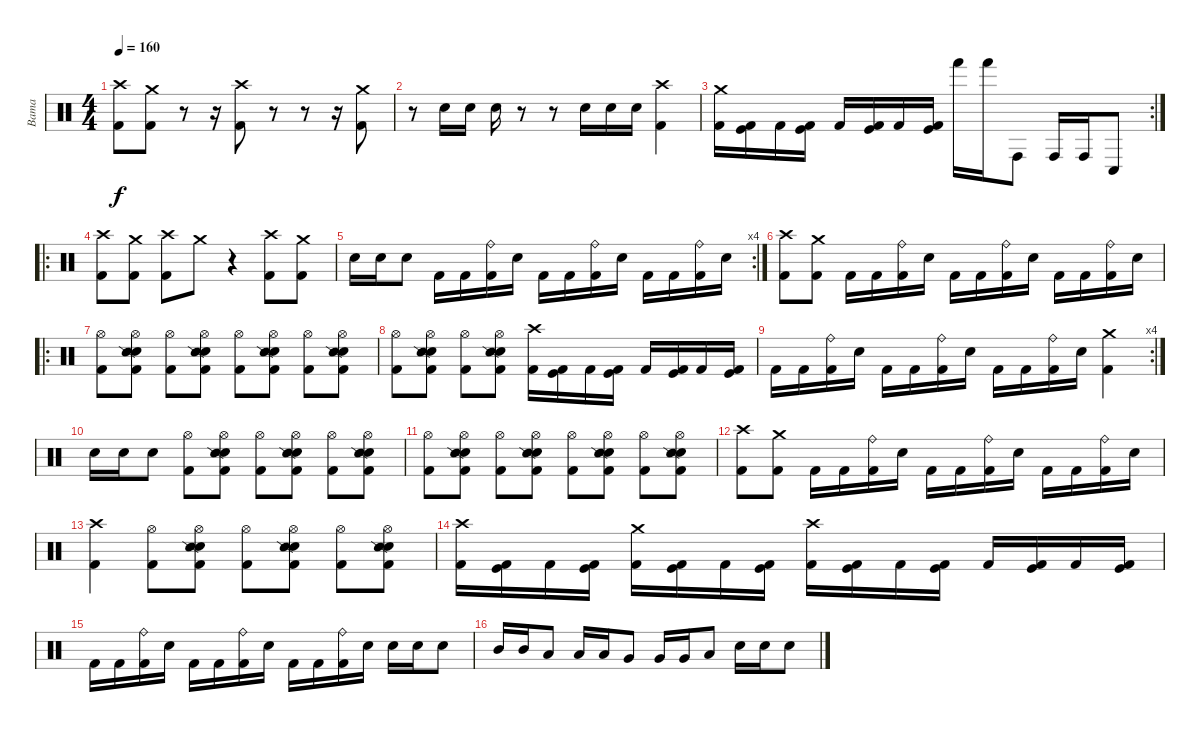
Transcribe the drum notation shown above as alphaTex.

\track ("Bama" "Bama") {instrument percussion}
\staff {score}
\articulation defaults
\ts (4 4)
\tempo 160
\clef neutral
\ks c
("Crash high (hit)" "Kick (hit) 2").8{dy f} ("Crash medium (hit)" "Kick (hit) 2").8 r.8 r.16 ("Crash high (hit)" "Kick (hit) 2").8 r.8 r.8 r.16 ("Crash medium (hit)" "Kick (hit) 2").8 |
r.8 "Electric Snare (hit)".16 "Electric Snare (hit)".16 "Electric Snare (hit)".16 r.8 r.8 "Electric Snare (hit)".16 "Electric Snare (hit)".16 "Electric Snare (hit)".16 ("Crash high (hit)" "Kick (hit) 2").4 |
\rc 2
("Crash medium (hit)" "Kick (hit) 2").16 ("Kick (hit)" "Kick (hit) 2").16 "Kick (hit) 2".16 ("Kick (hit)" "Kick (hit) 2").16 "Kick (hit) 2".16 ("Kick (hit)" "Kick (hit) 2").16 "Kick (hit) 2".16 ("Kick (hit)" "Kick (hit) 2").16 "Hand (hit)".16 "Hand (hit)".16 "Conga high (hit)".8 "Conga high (hit)".16 "Conga high (hit)".16 "Conga low (hit)".8 |
\ro
("Crash high (hit)" "Kick (hit) 2").8 ("Crash medium (hit)" "Kick (hit) 2").8 ("Crash high (hit)" "Kick (hit) 2").8 "Crash medium (hit)".8 r.4 ("Crash high (hit)" "Kick (hit) 2").8 ("Crash medium (hit)" "Kick (hit) 2").8 |
\rc 4 "Electric Snare (hit)".16 "Electric Snare (hit)".16 "Electric Snare (hit)".8 "Kick (hit) 2".16 "Kick (hit) 2".16
("Ride (bell)" "Kick (hit) 2").16 "Electric Snare (hit)".16 "Kick (hit) 2".16 "Kick (hit) 2".16 ("Ride (bell)" "Kick (hit) 2").16 "Electric Snare (hit)".16 "Kick (hit) 2".16 "Kick (hit) 2".16 ("Ride (bell)" "Kick (hit) 2").16 "Electric Snare (hit)".16 |
("Crash high (hit)" "Kick (hit) 2").8 ("Crash medium (hit)" "Kick (hit) 2").8 "Kick (hit) 2".16 "Kick (hit) 2".16 ("Ride (bell)" "Kick (hit) 2").16 "Electric Snare (hit)".16 "Kick (hit) 2".16 "Kick (hit) 2".16 ("Ride (bell)" "Kick (hit) 2").16 "Electric Snare (hit)".16 "Kick (hit) 2".16 "Kick (hit) 2".16 ("Ride (bell)" "Kick (hit) 2").16 "Electric Snare (hit)".16 |
\ro
("Hi-Hat (open)" "Kick (hit) 2").8 ("Hi-Hat (open)" "Electric Snare (hit)" "Snare (side stick) 2" "Kick (hit) 2").8 ("Hi-Hat (open)" "Kick (hit) 2").8 ("Hi-Hat (open)" "Electric Snare (hit)" "Snare (side stick) 2" "Kick (hit) 2").8 ("Hi-Hat (open)" "Kick (hit) 2").8 ("Hi-Hat (open)" "Electric Snare (hit)" "Snare (side stick) 2" "Kick (hit) 2").8 ("Hi-Hat (open)" "Kick (hit) 2").8 ("Hi-Hat (open)" "Electric Snare (hit)" "Snare (side stick) 2" "Kick (hit) 2").8 |
("Hi-Hat (open)" "Kick (hit) 2").8 ("Hi-Hat (open)" "Electric Snare (hit)" "Snare (side stick) 2" "Kick (hit) 2").8 ("Hi-Hat (open)" "Kick (hit) 2").8 ("Hi-Hat (open)" "Electric Snare (hit)" "Snare (side stick) 2" "Kick (hit) 2").8 ("Crash high (hit)" "Kick (hit) 2").16 ("Kick (hit)" "Kick (hit) 2").16 "Kick (hit) 2".16 ("Kick (hit)" "Kick (hit) 2").16 "Kick (hit) 2".16 ("Kick (hit)" "Kick (hit) 2").16 "Kick (hit) 2".16 ("Kick (hit)" "Kick (hit) 2").16 |
\rc 4 "Kick (hit) 2".16 "Kick (hit) 2".16
("Ride (bell)" "Kick (hit) 2").16 "Electric Snare (hit)".16 "Kick (hit) 2".16 "Kick (hit) 2".16 ("Ride (bell)" "Kick (hit) 2").16 "Electric Snare (hit)".16 "Kick (hit) 2".16 "Kick (hit) 2".16 ("Ride (bell)" "Kick (hit) 2").16 "Electric Snare (hit)".16 ("Crash medium (hit)" "Kick (hit) 2").4 |
"Electric Snare (hit)".16 "Electric Snare (hit)".16 "Electric Snare (hit)".8 ("Hi-Hat (open)" "Kick (hit) 2").8 ("Hi-Hat (open)" "Electric Snare (hit)" "Snare (side stick) 2" "Kick (hit) 2").8 ("Hi-Hat (open)" "Kick (hit) 2").8 ("Hi-Hat (open)" "Electric Snare (hit)" "Snare (side stick) 2" "Kick (hit) 2").8 ("Hi-Hat (open)" "Kick (hit) 2").8 ("Hi-Hat (open)" "Electric Snare (hit)" "Snare (side stick) 2" "Kick (hit) 2").8 |
("Hi-Hat (open)" "Kick (hit) 2").8 ("Hi-Hat (open)" "Electric Snare (hit)" "Snare (side stick) 2" "Kick (hit) 2").8 ("Hi-Hat (open)" "Kick (hit) 2").8 ("Hi-Hat (open)" "Electric Snare (hit)" "Snare (side stick) 2" "Kick (hit) 2").8 ("Hi-Hat (open)" "Kick (hit) 2").8 ("Hi-Hat (open)" "Electric Snare (hit)" "Snare (side stick) 2" "Kick (hit) 2").8 ("Hi-Hat (open)" "Kick (hit) 2").8 ("Hi-Hat (open)" "Electric Snare (hit)" "Snare (side stick) 2" "Kick (hit) 2").8 |
("Crash high (hit)" "Kick (hit) 2").8 ("Crash medium (hit)" "Kick (hit) 2").8 "Kick (hit) 2".16 "Kick (hit) 2".16 ("Ride (bell)" "Kick (hit) 2").16 "Electric Snare (hit)".16 "Kick (hit) 2".16 "Kick (hit) 2".16 ("Ride (bell)" "Kick (hit) 2").16 "Electric Snare (hit)".16 "Kick (hit) 2".16 "Kick (hit) 2".16 ("Ride (bell)" "Kick (hit) 2").16 "Electric Snare (hit)".16 |
("Crash high (hit)" "Kick (hit) 2").4 ("Hi-Hat (open)" "Kick (hit) 2").8 ("Hi-Hat (open)" "Electric Snare (hit)" "Snare (side stick) 2" "Kick (hit) 2").8 ("Hi-Hat (open)" "Kick (hit) 2").8 ("Hi-Hat (open)" "Electric Snare (hit)" "Snare (side stick) 2" "Kick (hit) 2").8 ("Hi-Hat (open)" "Kick (hit) 2").8 ("Hi-Hat (open)" "Electric Snare (hit)" "Snare (side stick) 2" "Kick (hit) 2").8 |
("Crash high (hit)" "Kick (hit) 2").16 ("Kick (hit)" "Kick (hit) 2").16 "Kick (hit) 2".16 ("Kick (hit)" "Kick (hit) 2").16 ("Crash medium (hit)" "Kick (hit) 2").16 ("Kick (hit)" "Kick (hit) 2").16 "Kick (hit) 2".16 ("Kick (hit)" "Kick (hit) 2").16 ("Crash high (hit)" "Kick (hit) 2").16 ("Kick (hit)" "Kick (hit) 2").16 "Kick (hit) 2".16 ("Kick (hit)" "Kick (hit) 2").16 "Kick (hit) 2".16 ("Kick (hit)" "Kick (hit) 2").16 "Kick (hit) 2".16 ("Kick (hit)" "Kick (hit) 2").16 |
"Kick (hit) 2".16 "Kick (hit) 2".16 ("Ride (bell)" "Kick (hit) 2").16 "Electric Snare (hit)".16 "Kick (hit) 2".16 "Kick (hit) 2".16 ("Ride (bell)" "Kick (hit) 2").16 "Electric Snare (hit)".16 "Kick (hit) 2".16 "Kick (hit) 2".16 ("Ride (bell)" "Kick (hit) 2").16 "Electric Snare (hit)".16 "Electric Snare (hit)".16 "Electric Snare (hit)".16 "Electric Snare (hit)".8 |
"Mid Tom (hit)".16 "Mid Tom (hit)".16 "Low Tom (hit)".8 "Low Tom (hit)".16 "Low Tom (hit)".16 "Very Low Tom (hit)".8 "Very Low Tom (hit)".16 "Very Low Tom (hit)".16 "Low Floor Tom (hit)".8 "Electric Snare (hit)".16 "Electric Snare (hit)".16 "Electric Snare (hit)".8
